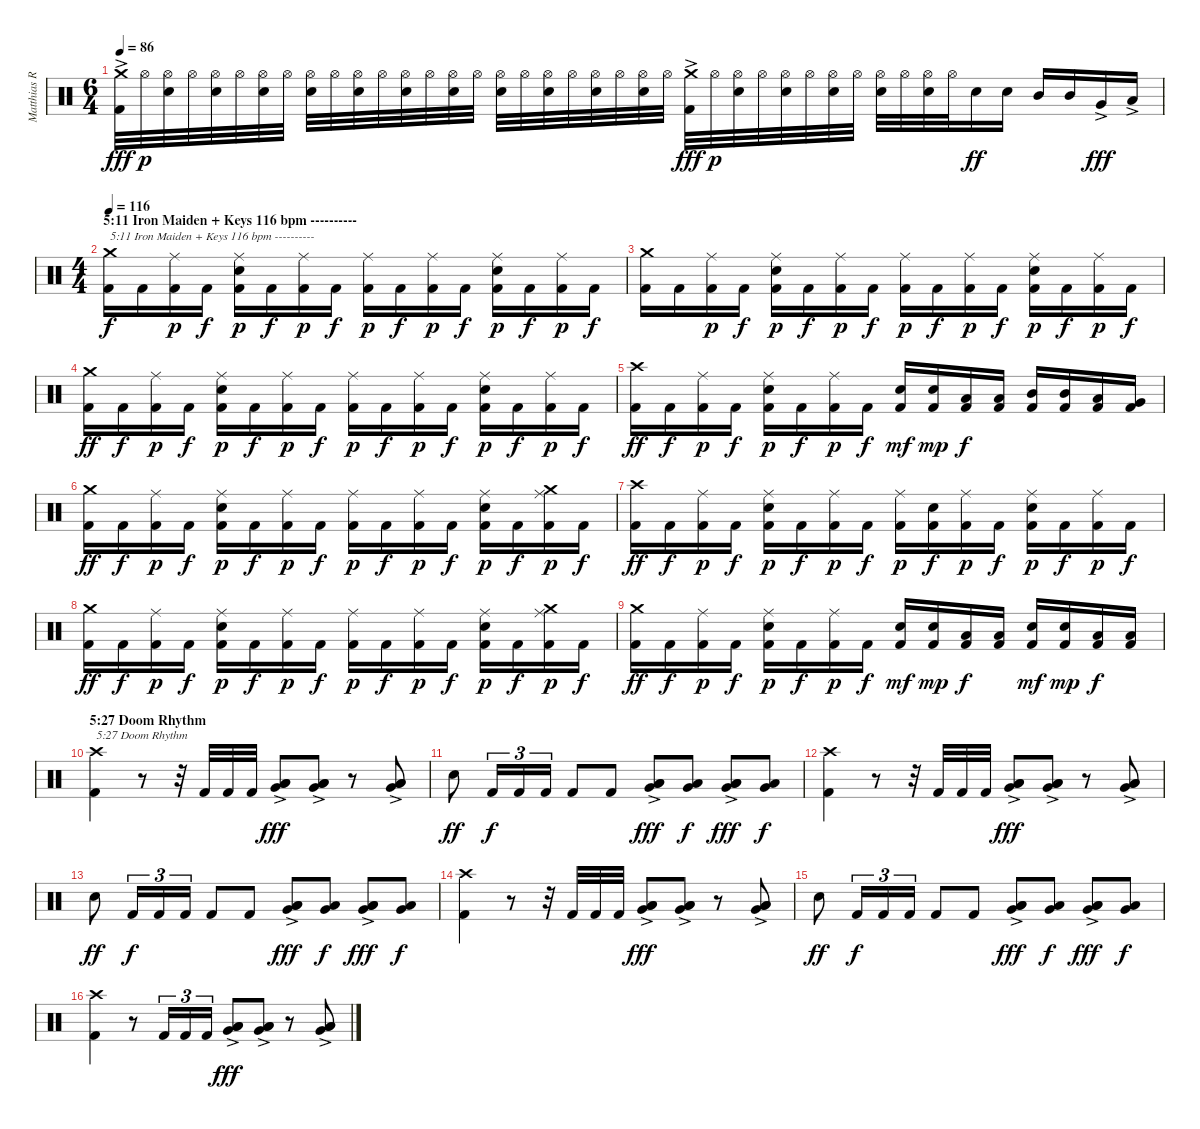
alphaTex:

\track ("Matthias R." "Matthias R") {instrument percussion}
\staff {score}
\articulation defaults
\ts (6 4)
\tempo 86
\clef neutral
\ks c
("Kick (hit) 2"{ac} "Crash medium (hit)").32{dy fff} "Hi-Hat (open)".32{dy p} ("Electric Snare (hit)" "Hi-Hat (open)").32 "Hi-Hat (open)".32 ("Electric Snare (hit)" "Hi-Hat (open)").32 "Hi-Hat (open)".32 ("Electric Snare (hit)" "Hi-Hat (open)").32 "Hi-Hat (open)".32 ("Electric Snare (hit)" "Hi-Hat (open)").32 "Hi-Hat (open)".32 ("Electric Snare (hit)" "Hi-Hat (open)").32 "Hi-Hat (open)".32 ("Electric Snare (hit)" "Hi-Hat (open)").32 "Hi-Hat (open)".32 ("Electric Snare (hit)" "Hi-Hat (open)").32 "Hi-Hat (open)".32 ("Electric Snare (hit)" "Hi-Hat (open)").32 "Hi-Hat (open)".32 ("Electric Snare (hit)" "Hi-Hat (open)").32 "Hi-Hat (open)".32 ("Electric Snare (hit)" "Hi-Hat (open)").32 "Hi-Hat (open)".32 ("Electric Snare (hit)" "Hi-Hat (open)").32 "Hi-Hat (open)".32 ("Kick (hit) 2"{ac} "Crash medium (hit)").32{dy fff} "Hi-Hat (open)".32{dy p} ("Electric Snare (hit)" "Hi-Hat (open)").32 "Hi-Hat (open)".32 ("Electric Snare (hit)" "Hi-Hat (open)").32 "Hi-Hat (open)".32 ("Electric Snare (hit)" "Hi-Hat (open)").32 "Hi-Hat (open)".32 ("Electric Snare (hit)" "Hi-Hat (open)").32 "Hi-Hat (open)".32 ("Electric Snare (hit)" "Hi-Hat (open)").32 "Hi-Hat (open)".32 "Electric Snare (hit)".16{dy ff} "Electric Snare (hit)".16 "Mid Tom (hit)".16 "Mid Tom (hit)".16 "Very Low Tom (hit)"{ac}.16{dy fff} "Low Tom (hit)"{ac}.16 |
\ts (4 4)
\section ("" "5:11 Iron Maiden + Keys 116 bpm ----------")
\tempo 116
("Kick (hit) 2" "Crash medium (hit)").16{txt "5:11 Iron Maiden + Keys 116 bpm ----------" dy f} "Kick (hit) 2".16 ("Kick (hit) 2" "Ride (middle)").16{dy p} "Kick (hit) 2".16{dy f} ("Kick (hit) 2" "Electric Snare (hit)" "Ride (middle)").16{dy p} "Kick (hit) 2".16{dy f} ("Kick (hit) 2" "Ride (middle)").16{dy p} "Kick (hit) 2".16{dy f} ("Kick (hit) 2" "Ride (middle)").16{dy p} "Kick (hit) 2".16{dy f} ("Kick (hit) 2" "Ride (middle)").16{dy p} "Kick (hit) 2".16{dy f} ("Kick (hit) 2" "Electric Snare (hit)" "Ride (middle)").16{dy p} "Kick (hit) 2".16{dy f} ("Kick (hit) 2" "Ride (middle)").16{dy p} "Kick (hit) 2".16{dy f} |
("Kick (hit) 2" "Crash medium (hit)").16 "Kick (hit) 2".16 ("Kick (hit) 2" "Ride (middle)").16{dy p} "Kick (hit) 2".16{dy f} ("Kick (hit) 2" "Electric Snare (hit)" "Ride (middle)").16{dy p} "Kick (hit) 2".16{dy f} ("Kick (hit) 2" "Ride (middle)").16{dy p} "Kick (hit) 2".16{dy f} ("Kick (hit) 2" "Ride (middle)").16{dy p} "Kick (hit) 2".16{dy f} ("Kick (hit) 2" "Ride (middle)").16{dy p} "Kick (hit) 2".16{dy f} ("Kick (hit) 2" "Electric Snare (hit)" "Ride (middle)").16{dy p} "Kick (hit) 2".16{dy f} ("Kick (hit) 2" "Ride (middle)").16{dy p} "Kick (hit) 2".16{dy f} |
("Kick (hit) 2" "Crash medium (hit)").16{dy ff} "Kick (hit) 2".16{dy f} ("Kick (hit) 2" "Ride (middle)").16{dy p} "Kick (hit) 2".16{dy f} ("Kick (hit) 2" "Electric Snare (hit)" "Ride (middle)").16{dy p} "Kick (hit) 2".16{dy f} ("Kick (hit) 2" "Ride (middle)").16{dy p} "Kick (hit) 2".16{dy f} ("Kick (hit) 2" "Ride (middle)").16{dy p} "Kick (hit) 2".16{dy f} ("Kick (hit) 2" "Ride (middle)").16{dy p} "Kick (hit) 2".16{dy f} ("Kick (hit) 2" "Electric Snare (hit)" "Ride (middle)").16{dy p} "Kick (hit) 2".16{dy f} ("Kick (hit) 2" "Ride (middle)").16{dy p} "Kick (hit) 2".16{dy f} |
("Kick (hit) 2" "Crash high (hit)").16{dy ff} "Kick (hit) 2".16{dy f} ("Kick (hit) 2" "Ride (middle)").16{dy p} "Kick (hit) 2".16{dy f} ("Kick (hit) 2" "Electric Snare (hit)" "Ride (middle)").16{dy p} "Kick (hit) 2".16{dy f} ("Kick (hit) 2" "Ride (middle)").16{dy p} "Kick (hit) 2".16{dy f} ("Kick (hit) 2" "Electric Snare (hit)").16{dy mf} ("Kick (hit) 2" "Electric Snare (hit)").16{dy mp} ("Kick (hit) 2" "Low Tom (hit)").16{dy f} ("Kick (hit) 2" "Low Tom (hit)").16 ("Kick (hit) 2" "Mid Tom (hit)").16 ("Kick (hit) 2" "Mid Tom (hit)").16 ("Kick (hit) 2" "Low Tom (hit)").16 ("Kick (hit) 2" "Very Low Tom (hit)").16 |
("Kick (hit) 2" "Crash medium (hit)").16{dy ff} "Kick (hit) 2".16{dy f} ("Kick (hit) 2" "Ride (middle)").16{dy p} "Kick (hit) 2".16{dy f} ("Kick (hit) 2" "Electric Snare (hit)" "Ride (middle)").16{dy p} "Kick (hit) 2".16{dy f} ("Kick (hit) 2" "Ride (middle)").16{dy p} "Kick (hit) 2".16{dy f} ("Kick (hit) 2" "Ride (middle)").16{dy p} "Kick (hit) 2".16{dy f} ("Kick (hit) 2" "Ride (middle)").16{dy p} "Kick (hit) 2".16{dy f} ("Kick (hit) 2" "Electric Snare (hit)" "Ride (middle)").16{dy p} "Kick (hit) 2".16{dy f} ("Kick (hit) 2" "Ride (middle)" "Crash medium (hit)").16{dy p} "Kick (hit) 2".16{dy f} |
("Kick (hit) 2" "Crash high (hit)").16{dy ff} "Kick (hit) 2".16{dy f} ("Kick (hit) 2" "Ride (middle)").16{dy p} "Kick (hit) 2".16{dy f} ("Kick (hit) 2" "Electric Snare (hit)" "Ride (middle)").16{dy p} "Kick (hit) 2".16{dy f} ("Kick (hit) 2" "Ride (middle)").16{dy p} "Kick (hit) 2".16{dy f} ("Kick (hit) 2" "Ride (middle)").16{dy p} ("Kick (hit) 2" "Electric Snare (hit)").16{dy f} ("Kick (hit) 2" "Ride (middle)").16{dy p} "Kick (hit) 2".16{dy f} ("Kick (hit) 2" "Electric Snare (hit)" "Ride (middle)").16{dy p} "Kick (hit) 2".16{dy f} ("Kick (hit) 2" "Ride (middle)").16{dy p} "Kick (hit) 2".16{dy f} |
("Kick (hit) 2" "Crash medium (hit)").16{dy ff} "Kick (hit) 2".16{dy f} ("Kick (hit) 2" "Ride (middle)").16{dy p} "Kick (hit) 2".16{dy f} ("Kick (hit) 2" "Electric Snare (hit)" "Ride (middle)").16{dy p} "Kick (hit) 2".16{dy f} ("Kick (hit) 2" "Ride (middle)").16{dy p} "Kick (hit) 2".16{dy f} ("Kick (hit) 2" "Ride (middle)").16{dy p} "Kick (hit) 2".16{dy f} ("Kick (hit) 2" "Ride (middle)").16{dy p} "Kick (hit) 2".16{dy f} ("Kick (hit) 2" "Electric Snare (hit)" "Ride (middle)").16{dy p} "Kick (hit) 2".16{dy f} ("Kick (hit) 2" "Ride (middle)" "Crash medium (hit)").16{dy p} "Kick (hit) 2".16{dy f} |
("Kick (hit) 2" "Crash medium (hit)").16{dy ff} "Kick (hit) 2".16{dy f} ("Kick (hit) 2" "Ride (middle)").16{dy p} "Kick (hit) 2".16{dy f} ("Kick (hit) 2" "Electric Snare (hit)" "Ride (middle)").16{dy p} "Kick (hit) 2".16{dy f} ("Kick (hit) 2" "Ride (middle)").16{dy p} "Kick (hit) 2".16{dy f} ("Kick (hit) 2" "Electric Snare (hit)").16{dy mf} ("Kick (hit) 2" "Electric Snare (hit)").16{dy mp} ("Kick (hit) 2" "Low Tom (hit)").16{dy f} ("Kick (hit) 2" "Low Tom (hit)").16 ("Kick (hit) 2" "Electric Snare (hit)").16{dy mf} ("Kick (hit) 2" "Electric Snare (hit)").16{dy mp} ("Kick (hit) 2" "Low Tom (hit)").16{dy f} ("Kick (hit) 2" "Low Tom (hit)").16 |
\section ("" "5:27 Doom Rhythm")
("Kick (hit) 2" "Crash high (hit)").4{txt "5:27 Doom Rhythm"} r.8 r.32 "Kick (hit) 2".32 "Kick (hit) 2".32 "Kick (hit) 2".32 ("Low Floor Tom (hit)" "Low Tom (hit)"{ac} "Very Low Tom (hit)"{ac}).8{dy fff} ("Low Floor Tom (hit)" "Low Tom (hit)"{ac} "Very Low Tom (hit)"{ac}).8 r.8 ("Low Floor Tom (hit)" "Low Tom (hit)"{ac} "Very Low Tom (hit)"{ac}).8 |
"Electric Snare (hit)".8{dy ff} "Kick (hit) 2".16{tu (3 2) dy f} "Kick (hit) 2".16{tu (3 2)} "Kick (hit) 2".16{tu (3 2)} "Kick (hit) 2".8 "Kick (hit) 2".8 ("Low Floor Tom (hit)" "Low Tom (hit)"{ac} "Very Low Tom (hit)"{ac}).8{dy fff} ("Very Low Tom (hit)" "Low Tom (hit)").8{dy f} ("Low Floor Tom (hit)" "Low Tom (hit)"{ac} "Very Low Tom (hit)"{ac}).8{dy fff} ("Very Low Tom (hit)" "Low Tom (hit)").8{dy f} |
("Kick (hit) 2" "Crash high (hit)").4 r.8 r.32 "Kick (hit) 2".32 "Kick (hit) 2".32 "Kick (hit) 2".32 ("Low Floor Tom (hit)" "Low Tom (hit)"{ac} "Very Low Tom (hit)"{ac}).8{dy fff} ("Low Floor Tom (hit)" "Low Tom (hit)"{ac} "Very Low Tom (hit)"{ac}).8 r.8 ("Low Floor Tom (hit)" "Low Tom (hit)"{ac} "Very Low Tom (hit)"{ac}).8 |
"Electric Snare (hit)".8{dy ff} "Kick (hit) 2".16{tu (3 2) dy f} "Kick (hit) 2".16{tu (3 2)} "Kick (hit) 2".16{tu (3 2)} "Kick (hit) 2".8 "Kick (hit) 2".8 ("Low Floor Tom (hit)" "Low Tom (hit)"{ac} "Very Low Tom (hit)"{ac}).8{dy fff} ("Very Low Tom (hit)" "Low Tom (hit)").8{dy f} ("Low Floor Tom (hit)" "Low Tom (hit)"{ac} "Very Low Tom (hit)"{ac}).8{dy fff} ("Very Low Tom (hit)" "Low Tom (hit)").8{dy f} |
("Kick (hit) 2" "Crash high (hit)").4 r.8 r.32 "Kick (hit) 2".32 "Kick (hit) 2".32 "Kick (hit) 2".32 ("Low Floor Tom (hit)" "Low Tom (hit)"{ac} "Very Low Tom (hit)"{ac}).8{dy fff} ("Low Floor Tom (hit)" "Low Tom (hit)"{ac} "Very Low Tom (hit)"{ac}).8 r.8 ("Low Floor Tom (hit)" "Low Tom (hit)"{ac} "Very Low Tom (hit)"{ac}).8 |
"Electric Snare (hit)".8{dy ff} "Kick (hit) 2".16{tu (3 2) dy f} "Kick (hit) 2".16{tu (3 2)} "Kick (hit) 2".16{tu (3 2)} "Kick (hit) 2".8 "Kick (hit) 2".8 ("Low Floor Tom (hit)" "Low Tom (hit)"{ac} "Very Low Tom (hit)"{ac}).8{dy fff} ("Very Low Tom (hit)" "Low Tom (hit)").8{dy f} ("Low Floor Tom (hit)" "Low Tom (hit)"{ac} "Very Low Tom (hit)"{ac}).8{dy fff} ("Very Low Tom (hit)" "Low Tom (hit)").8{dy f} |
("Kick (hit) 2" "Crash high (hit)").4 r.8 "Kick (hit) 2".16{tu (3 2)} "Kick (hit) 2".16{tu (3 2)} "Kick (hit) 2".16{tu (3 2)} ("Low Floor Tom (hit)" "Low Tom (hit)"{ac} "Very Low Tom (hit)"{ac}).8{dy fff} ("Low Floor Tom (hit)" "Low Tom (hit)"{ac} "Very Low Tom (hit)"{ac}).8 r.8 ("Low Floor Tom (hit)" "Low Tom (hit)"{ac} "Very Low Tom (hit)"{ac}).8
